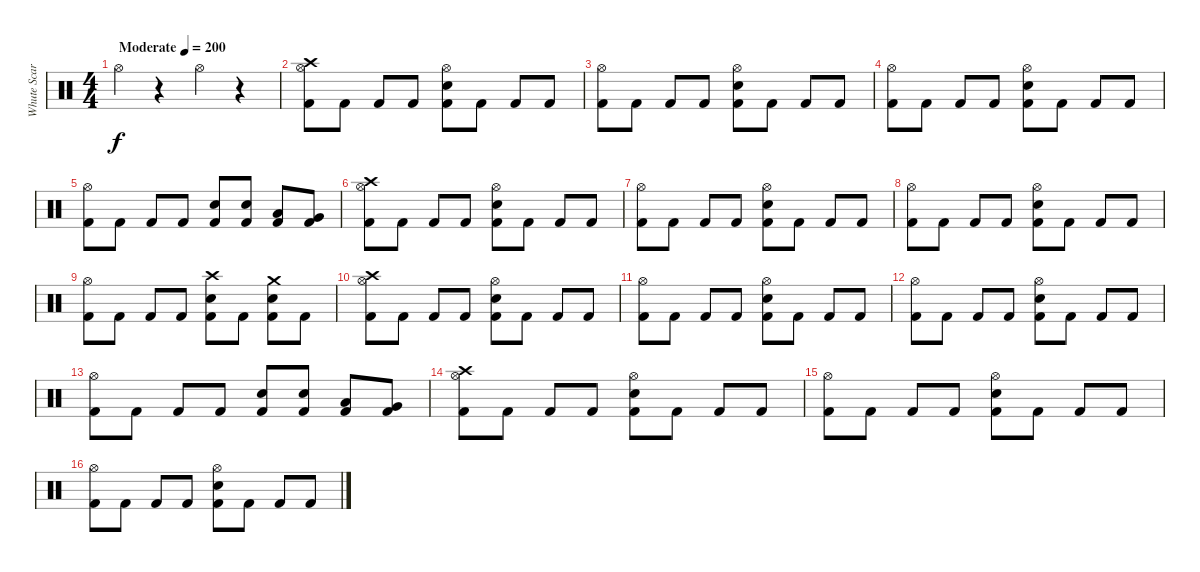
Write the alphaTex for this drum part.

\track ("Whute Scar" "Whute Scar") {instrument percussion}
\staff {score}
\articulation defaults
\ts (4 4)
\tempo (200 "Moderate")
\clef neutral
\ks c "Hi-Hat (open)".4{dy f}
r.4 "Hi-Hat (open)".4 r.4 |
("Crash high (hit)" "Hi-Hat (open)" "Kick (hit) 2").8 "Kick (hit) 2".8 "Kick (hit) 2".8 "Kick (hit) 2".8 ("Snare (hit) 2" "Hi-Hat (open)" "Kick (hit) 2").8 "Kick (hit) 2".8 "Kick (hit) 2".8 "Kick (hit) 2".8 |
("Hi-Hat (open)" "Kick (hit) 2").8 "Kick (hit) 2".8 "Kick (hit) 2".8 "Kick (hit) 2".8 ("Snare (hit) 2" "Hi-Hat (open)" "Kick (hit) 2").8 "Kick (hit) 2".8 "Kick (hit) 2".8 "Kick (hit) 2".8 |
("Hi-Hat (open)" "Kick (hit) 2").8 "Kick (hit) 2".8 "Kick (hit) 2".8 "Kick (hit) 2".8 ("Snare (hit) 2" "Hi-Hat (open)" "Kick (hit) 2").8 "Kick (hit) 2".8 "Kick (hit) 2".8 "Kick (hit) 2".8 |
("Hi-Hat (open)" "Kick (hit) 2").8 "Kick (hit) 2".8 "Kick (hit) 2".8 "Kick (hit) 2".8 ("Snare (hit) 2" "Kick (hit) 2").8 ("Snare (hit) 2" "Kick (hit) 2").8 ("Low Tom (hit)" "Kick (hit) 2").8 ("Very Low Tom (hit)" "Kick (hit) 2").8 |
("Crash high (hit)" "Hi-Hat (open)" "Kick (hit) 2").8 "Kick (hit) 2".8 "Kick (hit) 2".8 "Kick (hit) 2".8 ("Snare (hit) 2" "Hi-Hat (open)" "Kick (hit) 2").8 "Kick (hit) 2".8 "Kick (hit) 2".8 "Kick (hit) 2".8 |
("Hi-Hat (open)" "Kick (hit) 2").8 "Kick (hit) 2".8 "Kick (hit) 2".8 "Kick (hit) 2".8 ("Snare (hit) 2" "Hi-Hat (open)" "Kick (hit) 2").8 "Kick (hit) 2".8 "Kick (hit) 2".8 "Kick (hit) 2".8 |
("Hi-Hat (open)" "Kick (hit) 2").8 "Kick (hit) 2".8 "Kick (hit) 2".8 "Kick (hit) 2".8 ("Snare (hit) 2" "Hi-Hat (open)" "Kick (hit) 2").8 "Kick (hit) 2".8 "Kick (hit) 2".8 "Kick (hit) 2".8 |
("Hi-Hat (open)" "Kick (hit) 2").8 "Kick (hit) 2".8 "Kick (hit) 2".8 "Kick (hit) 2".8 ("Snare (hit) 2" "Crash high (hit)" "Kick (hit) 2").8 "Kick (hit) 2".8 ("Snare (hit) 2" "Crash medium (hit)" "Kick (hit) 2").8 "Kick (hit) 2".8 |
("Crash high (hit)" "Hi-Hat (open)" "Kick (hit) 2").8 "Kick (hit) 2".8 "Kick (hit) 2".8 "Kick (hit) 2".8 ("Snare (hit) 2" "Hi-Hat (open)" "Kick (hit) 2").8 "Kick (hit) 2".8 "Kick (hit) 2".8 "Kick (hit) 2".8 |
("Hi-Hat (open)" "Kick (hit) 2").8 "Kick (hit) 2".8 "Kick (hit) 2".8 "Kick (hit) 2".8 ("Snare (hit) 2" "Hi-Hat (open)" "Kick (hit) 2").8 "Kick (hit) 2".8 "Kick (hit) 2".8 "Kick (hit) 2".8 |
("Hi-Hat (open)" "Kick (hit) 2").8 "Kick (hit) 2".8 "Kick (hit) 2".8 "Kick (hit) 2".8 ("Snare (hit) 2" "Hi-Hat (open)" "Kick (hit) 2").8 "Kick (hit) 2".8 "Kick (hit) 2".8 "Kick (hit) 2".8 |
("Hi-Hat (open)" "Kick (hit) 2").8 "Kick (hit) 2".8 "Kick (hit) 2".8 "Kick (hit) 2".8 ("Snare (hit) 2" "Kick (hit) 2").8 ("Snare (hit) 2" "Kick (hit) 2").8 ("Low Tom (hit)" "Kick (hit) 2").8 ("Very Low Tom (hit)" "Kick (hit) 2").8 |
("Crash high (hit)" "Hi-Hat (open)" "Kick (hit) 2").8 "Kick (hit) 2".8 "Kick (hit) 2".8 "Kick (hit) 2".8 ("Snare (hit) 2" "Hi-Hat (open)" "Kick (hit) 2").8 "Kick (hit) 2".8 "Kick (hit) 2".8 "Kick (hit) 2".8 |
("Hi-Hat (open)" "Kick (hit) 2").8 "Kick (hit) 2".8 "Kick (hit) 2".8 "Kick (hit) 2".8 ("Snare (hit) 2" "Hi-Hat (open)" "Kick (hit) 2").8 "Kick (hit) 2".8 "Kick (hit) 2".8 "Kick (hit) 2".8 |
("Hi-Hat (open)" "Kick (hit) 2").8 "Kick (hit) 2".8 "Kick (hit) 2".8 "Kick (hit) 2".8 ("Snare (hit) 2" "Hi-Hat (open)" "Kick (hit) 2").8 "Kick (hit) 2".8 "Kick (hit) 2".8 "Kick (hit) 2".8
